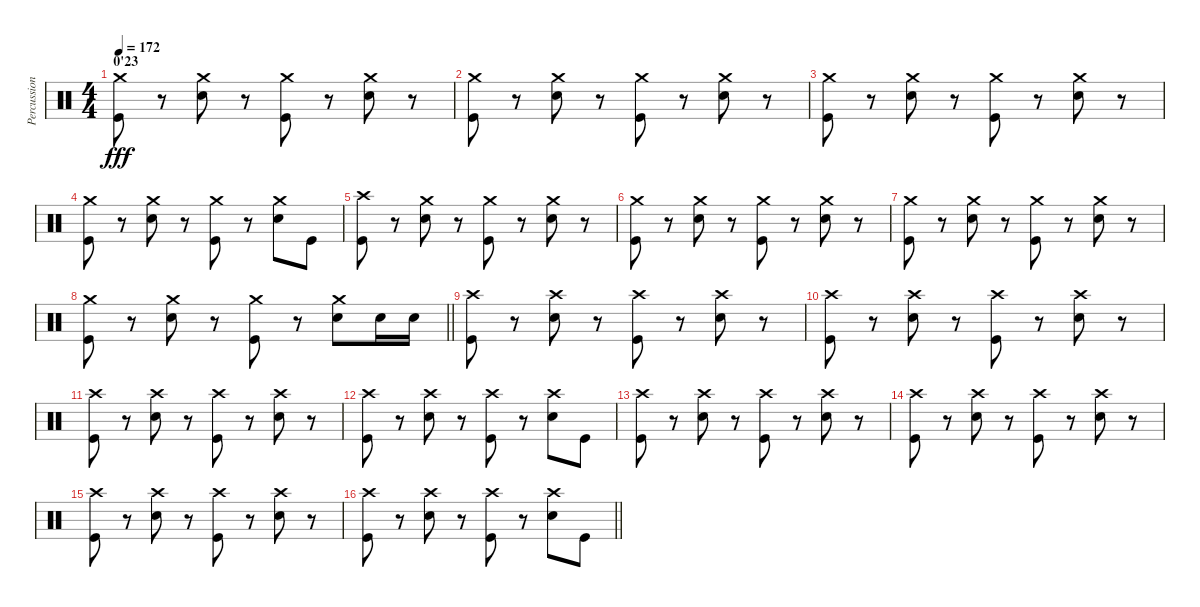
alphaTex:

\track ("Percussions" "Percussion") {instrument percussion}
\staff {score}
\articulation defaults
\ts (4 4)
\section ("" "0'23")
\tempo 172
\clef neutral
\ks c
("Crash medium (hit)" "Kick (hit)").8{dy fff} r.8 ("Crash medium (hit)" "Snare (hit) 2").8 r.8 ("Crash medium (hit)" "Kick (hit)").8 r.8 ("Crash medium (hit)" "Snare (hit) 2").8 r.8 |
("Crash medium (hit)" "Kick (hit)").8 r.8 ("Crash medium (hit)" "Snare (hit) 2").8 r.8 ("Crash medium (hit)" "Kick (hit)").8 r.8 ("Crash medium (hit)" "Snare (hit) 2").8 r.8 |
("Crash medium (hit)" "Kick (hit)").8 r.8 ("Crash medium (hit)" "Snare (hit) 2").8 r.8 ("Crash medium (hit)" "Kick (hit)").8 r.8 ("Crash medium (hit)" "Snare (hit) 2").8 r.8 |
("Crash medium (hit)" "Kick (hit)").8 r.8 ("Crash medium (hit)" "Snare (hit) 2").8 r.8 ("Crash medium (hit)" "Kick (hit)").8 r.8 ("Crash medium (hit)" "Snare (hit) 2").8 "Kick (hit)".8 |
("Crash high (hit)" "Kick (hit)").8 r.8 ("Crash medium (hit)" "Snare (hit) 2").8 r.8 ("Crash medium (hit)" "Kick (hit)").8 r.8 ("Crash medium (hit)" "Snare (hit) 2").8 r.8 |
("Crash medium (hit)" "Kick (hit)").8 r.8 ("Crash medium (hit)" "Snare (hit) 2").8 r.8 ("Crash medium (hit)" "Kick (hit)").8 r.8 ("Crash medium (hit)" "Snare (hit) 2").8 r.8 |
("Crash medium (hit)" "Kick (hit)").8 r.8 ("Crash medium (hit)" "Snare (hit) 2").8 r.8 ("Crash medium (hit)" "Kick (hit)").8 r.8 ("Crash medium (hit)" "Snare (hit) 2").8 r.8 |
\barLineRight lightlight
("Crash medium (hit)" "Kick (hit)").8 r.8 ("Crash medium (hit)" "Snare (hit) 2").8 r.8 ("Crash medium (hit)" "Kick (hit)").8 r.8 ("Crash medium (hit)" "Snare (hit) 2").8 "Snare (hit) 2".16 "Snare (hit) 2".16 |
("Crash high (hit)" "Kick (hit)").8 r.8 ("Crash high (hit)" "Snare (hit) 2").8 r.8 ("Crash high (hit)" "Kick (hit)").8 r.8 ("Crash high (hit)" "Snare (hit) 2").8 r.8 |
("Crash high (hit)" "Kick (hit)").8 r.8 ("Crash high (hit)" "Snare (hit) 2").8 r.8 ("Crash high (hit)" "Kick (hit)").8 r.8 ("Crash high (hit)" "Snare (hit) 2").8 r.8 |
("Crash high (hit)" "Kick (hit)").8 r.8 ("Crash high (hit)" "Snare (hit) 2").8 r.8 ("Crash high (hit)" "Kick (hit)").8 r.8 ("Crash high (hit)" "Snare (hit) 2").8 r.8 |
("Crash high (hit)" "Kick (hit)").8 r.8 ("Crash high (hit)" "Snare (hit) 2").8 r.8 ("Crash high (hit)" "Kick (hit)").8 r.8 ("Crash high (hit)" "Snare (hit) 2").8 "Kick (hit)".8 |
("Crash high (hit)" "Kick (hit)").8 r.8 ("Crash high (hit)" "Snare (hit) 2").8 r.8 ("Crash high (hit)" "Kick (hit)").8 r.8 ("Crash high (hit)" "Snare (hit) 2").8 r.8 |
("Crash high (hit)" "Kick (hit)").8 r.8 ("Crash high (hit)" "Snare (hit) 2").8 r.8 ("Crash high (hit)" "Kick (hit)").8 r.8 ("Crash high (hit)" "Snare (hit) 2").8 r.8 |
("Crash high (hit)" "Kick (hit)").8 r.8 ("Crash high (hit)" "Snare (hit) 2").8 r.8 ("Crash high (hit)" "Kick (hit)").8 r.8 ("Crash high (hit)" "Snare (hit) 2").8 r.8 |
\barLineRight lightlight
("Crash high (hit)" "Kick (hit)").8 r.8 ("Crash high (hit)" "Snare (hit) 2").8 r.8 ("Crash high (hit)" "Kick (hit)").8 r.8 ("Crash high (hit)" "Snare (hit) 2").8 "Kick (hit)".8
